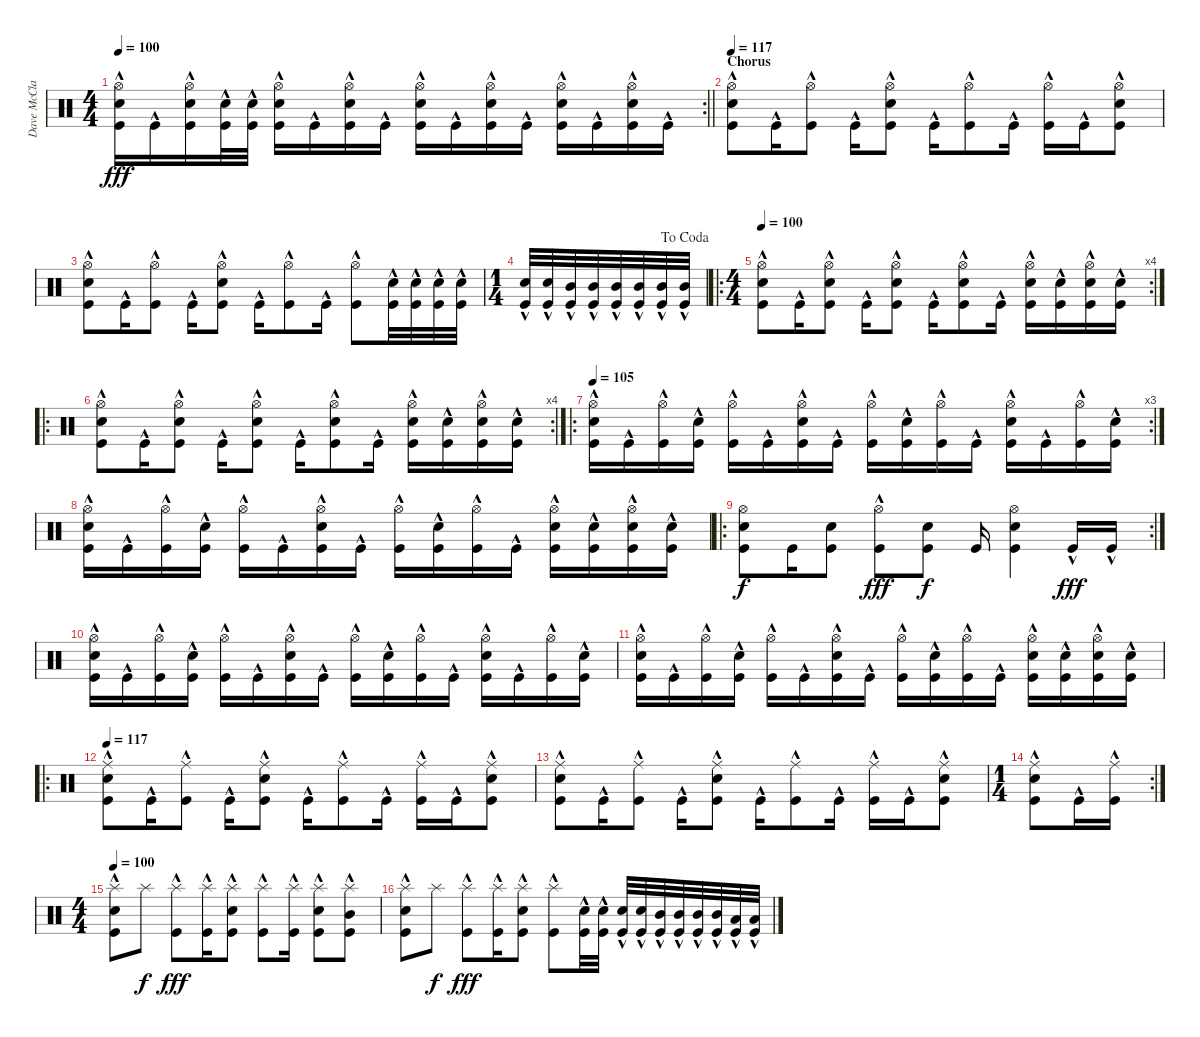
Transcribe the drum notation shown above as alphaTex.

\track ("Dave McClain" "Dave McCla") {instrument percussion}
\staff {score}
\articulation defaults
\rc 2
\ts (4 4)
\tempo 100
\clef neutral
\barLineRight lightlight
\ks c
("Hi-Hat (open)" "Electric Snare (hit)" "Kick (hit)"{hac}).16{dy fff} "Kick (hit)"{hac}.16 ("Hi-Hat (open)" "Electric Snare (hit)" "Kick (hit)"{hac}).16 ("Electric Snare (hit)" "Kick (hit)"{hac}).32 ("Electric Snare (hit)" "Kick (hit)"{hac}).32 ("Hi-Hat (open)" "Electric Snare (hit)" "Kick (hit)"{hac}).16 "Kick (hit)"{hac}.16 ("Hi-Hat (open)" "Electric Snare (hit)" "Kick (hit)"{hac}).16 "Kick (hit)"{hac}.16 ("Hi-Hat (open)" "Electric Snare (hit)" "Kick (hit)"{hac}).16 "Kick (hit)"{hac}.16 ("Hi-Hat (open)" "Electric Snare (hit)" "Kick (hit)"{hac}).16 "Kick (hit)"{hac}.16 ("Hi-Hat (open)" "Electric Snare (hit)" "Kick (hit)"{hac}).16 "Kick (hit)"{hac}.16 ("Hi-Hat (open)" "Electric Snare (hit)" "Kick (hit)"{hac}).16 "Kick (hit)"{hac}.16 |
\section ("" "Chorus")
\tempo 117
("Hi-Hat (open)" "Electric Snare (hit)" "Kick (hit)"{hac}).8 "Kick (hit)"{hac}.16 ("Hi-Hat (open)" "Kick (hit)"{hac}).8 "Kick (hit)"{hac}.16 ("Hi-Hat (open)" "Electric Snare (hit)" "Kick (hit)"{hac}).8 "Kick (hit)"{hac}.16 ("Hi-Hat (open)" "Kick (hit)"{hac}).8 "Kick (hit)"{hac}.16 ("Hi-Hat (open)" "Kick (hit)"{hac}).16 "Kick (hit)"{hac}.16 ("Hi-Hat (open)" "Electric Snare (hit)" "Kick (hit)"{hac}).8 |
("Hi-Hat (open)" "Electric Snare (hit)" "Kick (hit)"{hac}).8 "Kick (hit)"{hac}.16 ("Hi-Hat (open)" "Kick (hit)"{hac}).8 "Kick (hit)"{hac}.16 ("Hi-Hat (open)" "Electric Snare (hit)" "Kick (hit)"{hac}).8 "Kick (hit)"{hac}.16 ("Hi-Hat (open)" "Kick (hit)"{hac}).8 "Kick (hit)"{hac}.16 ("Hi-Hat (open)" "Kick (hit)"{hac}).8 ("Electric Snare (hit)" "Kick (hit)"{hac}).32 ("Electric Snare (hit)" "Kick (hit)"{hac}).32 ("Electric Snare (hit)" "Kick (hit)"{hac}).32 ("Electric Snare (hit)" "Kick (hit)"{hac}).32 |
\ts (1 4)
\jump dacoda
("Electric Snare (hit)" "Kick (hit)"{hac}).32 ("Electric Snare (hit)" "Kick (hit)"{hac}).32 ("Mid Tom (hit)" "Kick (hit)"{hac}).32 ("Mid Tom (hit)" "Kick (hit)"{hac}).32 ("Mid Tom (hit)" "Kick (hit)"{hac}).32 ("Mid Tom (hit)" "Kick (hit)"{hac}).32 ("Mid Tom (hit)" "Kick (hit)"{hac}).32 ("Mid Tom (hit)" "Kick (hit)"{hac}).32 |
\ro
\rc 4
\ts (4 4)
\tempo 100
("Hi-Hat (open)" "Electric Snare (hit)" "Kick (hit)"{hac}).8{volume 16} "Kick (hit)"{hac}.16 ("Hi-Hat (open)" "Electric Snare (hit)" "Kick (hit)"{hac}).8 "Kick (hit)"{hac}.16 ("Hi-Hat (open)" "Electric Snare (hit)" "Kick (hit)"{hac}).8 "Kick (hit)"{hac}.16 ("Hi-Hat (open)" "Electric Snare (hit)" "Kick (hit)"{hac}).8 "Kick (hit)"{hac}.16 ("Hi-Hat (open)" "Electric Snare (hit)" "Kick (hit)"{hac}).16 ("Electric Snare (hit)" "Kick (hit)"{hac}).16 ("Hi-Hat (open)" "Electric Snare (hit)" "Kick (hit)"{hac}).16 ("Electric Snare (hit)" "Kick (hit)"{hac}).16 |
\ro
\rc 4
("Hi-Hat (open)" "Electric Snare (hit)" "Kick (hit)"{hac}).8{volume 16} "Kick (hit)"{hac}.16 ("Hi-Hat (open)" "Electric Snare (hit)" "Kick (hit)"{hac}).8 "Kick (hit)"{hac}.16 ("Hi-Hat (open)" "Electric Snare (hit)" "Kick (hit)"{hac}).8 "Kick (hit)"{hac}.16 ("Hi-Hat (open)" "Electric Snare (hit)" "Kick (hit)"{hac}).8 "Kick (hit)"{hac}.16 ("Hi-Hat (open)" "Electric Snare (hit)" "Kick (hit)"{hac}).16 ("Electric Snare (hit)" "Kick (hit)"{hac}).16 ("Hi-Hat (open)" "Electric Snare (hit)" "Kick (hit)"{hac}).16 ("Electric Snare (hit)" "Kick (hit)"{hac}).16 |
\ro
\rc 3
\tempo 105
("Hi-Hat (open)" "Electric Snare (hit)" "Kick (hit)"{hac}).16 "Kick (hit)"{hac}.16 ("Hi-Hat (open)" "Kick (hit)"{hac}).16 ("Electric Snare (hit)" "Kick (hit)"{hac}).16 ("Hi-Hat (open)" "Kick (hit)"{hac}).16 "Kick (hit)"{hac}.16 ("Hi-Hat (open)" "Electric Snare (hit)" "Kick (hit)"{hac}).16 "Kick (hit)"{hac}.16 ("Hi-Hat (open)" "Kick (hit)"{hac}).16 ("Electric Snare (hit)" "Kick (hit)"{hac}).16 ("Hi-Hat (open)" "Kick (hit)"{hac}).16 "Kick (hit)"{hac}.16 ("Hi-Hat (open)" "Electric Snare (hit)" "Kick (hit)"{hac}).16 "Kick (hit)"{hac}.16 ("Hi-Hat (open)" "Kick (hit)"{hac}).16 ("Electric Snare (hit)" "Kick (hit)"{hac}).16 |
("Hi-Hat (open)" "Electric Snare (hit)" "Kick (hit)"{hac}).16 "Kick (hit)"{hac}.16 ("Hi-Hat (open)" "Kick (hit)"{hac}).16 ("Electric Snare (hit)" "Kick (hit)"{hac}).16 ("Hi-Hat (open)" "Kick (hit)"{hac}).16 "Kick (hit)"{hac}.16 ("Hi-Hat (open)" "Electric Snare (hit)" "Kick (hit)"{hac}).16 "Kick (hit)"{hac}.16 ("Hi-Hat (open)" "Kick (hit)"{hac}).16 ("Electric Snare (hit)" "Kick (hit)"{hac}).16 ("Hi-Hat (open)" "Kick (hit)"{hac}).16 "Kick (hit)"{hac}.16 ("Hi-Hat (open)" "Electric Snare (hit)" "Kick (hit)"{hac}).16 ("Electric Snare (hit)" "Kick (hit)"{hac}).16 ("Hi-Hat (open)" "Electric Snare (hit)" "Kick (hit)"{hac}).16 ("Electric Snare (hit)" "Kick (hit)"{hac}).16 |
\ro
\rc 2
("Hi-Hat (open)" "Electric Snare (hit)" "Kick (hit)").8{dy f} "Kick (hit)".16 ("Electric Snare (hit)" "Kick (hit)").8 ("Hi-Hat (open)" "Kick (hit)"{hac}).8{dy fff} ("Electric Snare (hit)" "Kick (hit)").8{dy f} "Kick (hit)".16 ("Hi-Hat (open)" "Electric Snare (hit)" "Kick (hit)").4 "Kick (hit)"{hac}.16{dy fff} "Kick (hit)"{hac}.16 |
("Hi-Hat (open)" "Electric Snare (hit)" "Kick (hit)"{hac}).16 "Kick (hit)"{hac}.16 ("Hi-Hat (open)" "Kick (hit)"{hac}).16 ("Electric Snare (hit)" "Kick (hit)"{hac}).16 ("Hi-Hat (open)" "Kick (hit)"{hac}).16 "Kick (hit)"{hac}.16 ("Hi-Hat (open)" "Electric Snare (hit)" "Kick (hit)"{hac}).16 "Kick (hit)"{hac}.16 ("Hi-Hat (open)" "Kick (hit)"{hac}).16 ("Electric Snare (hit)" "Kick (hit)"{hac}).16 ("Hi-Hat (open)" "Kick (hit)"{hac}).16 "Kick (hit)"{hac}.16 ("Hi-Hat (open)" "Electric Snare (hit)" "Kick (hit)"{hac}).16 "Kick (hit)"{hac}.16 ("Hi-Hat (open)" "Kick (hit)"{hac}).16 ("Electric Snare (hit)" "Kick (hit)"{hac}).16 |
("Hi-Hat (open)" "Electric Snare (hit)" "Kick (hit)"{hac}).16 "Kick (hit)"{hac}.16 ("Hi-Hat (open)" "Kick (hit)"{hac}).16 ("Electric Snare (hit)" "Kick (hit)"{hac}).16 ("Hi-Hat (open)" "Kick (hit)"{hac}).16 "Kick (hit)"{hac}.16 ("Hi-Hat (open)" "Electric Snare (hit)" "Kick (hit)"{hac}).16 "Kick (hit)"{hac}.16 ("Hi-Hat (open)" "Kick (hit)"{hac}).16 ("Electric Snare (hit)" "Kick (hit)"{hac}).16 ("Hi-Hat (open)" "Kick (hit)"{hac}).16 "Kick (hit)"{hac}.16 ("Hi-Hat (open)" "Electric Snare (hit)" "Kick (hit)"{hac}).16 ("Electric Snare (hit)" "Kick (hit)"{hac}).16 ("Hi-Hat (open)" "Electric Snare (hit)" "Kick (hit)"{hac}).16 ("Electric Snare (hit)" "Kick (hit)"{hac}).16 |
\ro
\tempo 117
("Ride (middle)" "Electric Snare (hit)" "Kick (hit)"{hac}).8 "Kick (hit)"{hac}.16 ("Ride (middle)" "Kick (hit)"{hac}).8 "Kick (hit)"{hac}.16 ("Ride (middle)" "Electric Snare (hit)" "Kick (hit)"{hac}).8 "Kick (hit)"{hac}.16 ("Ride (middle)" "Kick (hit)"{hac}).8 "Kick (hit)"{hac}.16 ("Ride (middle)" "Kick (hit)"{hac}).16 "Kick (hit)"{hac}.16 ("Ride (middle)" "Electric Snare (hit)" "Kick (hit)"{hac}).8 |
("Ride (middle)" "Electric Snare (hit)" "Kick (hit)"{hac}).8 "Kick (hit)"{hac}.16 ("Ride (middle)" "Kick (hit)"{hac}).8 "Kick (hit)"{hac}.16 ("Ride (middle)" "Electric Snare (hit)" "Kick (hit)"{hac}).8 "Kick (hit)"{hac}.16 ("Ride (middle)" "Kick (hit)"{hac}).8 "Kick (hit)"{hac}.16 ("Ride (middle)" "Kick (hit)"{hac}).16 "Kick (hit)"{hac}.16 ("Ride (middle)" "Electric Snare (hit)" "Kick (hit)"{hac}).8 |
\rc 2
\ts (1 4)
("Ride (middle)" "Electric Snare (hit)" "Kick (hit)"{hac}).8 "Kick (hit)"{hac}.16 ("Ride (middle)" "Kick (hit)"{hac}).16 |
\ts (4 4)
\tempo 100
("Splash (hit)" "Electric Snare (hit)" "Kick (hit)"{hac}).8{volume 10} "Splash (hit)".8{dy f} ("Splash (hit)" "Kick (hit)"{hac}).8{dy fff} ("Splash (hit)" "Kick (hit)"{hac}).16 ("Splash (hit)" "Electric Snare (hit)" "Kick (hit)"{hac}).8 ("Splash (hit)" "Kick (hit)"{hac}).8 ("Splash (hit)" "Kick (hit)"{hac}).16 ("Splash (hit)" "Electric Snare (hit)" "Kick (hit)"{hac}).8 ("Splash (hit)" "Mid Tom (hit)" "Kick (hit)"{hac}).8 |
("Splash (hit)" "Electric Snare (hit)" "Kick (hit)"{hac}).8 "Splash (hit)".8{dy f} ("Splash (hit)" "Kick (hit)"{hac}).8{dy fff} ("Splash (hit)" "Kick (hit)"{hac}).16 ("Splash (hit)" "Electric Snare (hit)" "Kick (hit)"{hac}).8 ("Splash (hit)" "Kick (hit)"{hac}).8 ("Electric Snare (hit)" "Kick (hit)"{hac}).32 ("Electric Snare (hit)" "Kick (hit)"{hac}).32 ("Electric Snare (hit)" "Kick (hit)"{hac}).32 ("Electric Snare (hit)" "Kick (hit)"{hac}).32 ("Mid Tom (hit)" "Kick (hit)"{hac}).32 ("Mid Tom (hit)" "Kick (hit)"{hac}).32 ("Mid Tom (hit)" "Kick (hit)"{hac}).32 ("Mid Tom (hit)" "Kick (hit)"{hac}).32 ("Low Tom (hit)" "Kick (hit)"{hac}).32 ("Low Tom (hit)" "Kick (hit)"{hac}).32
